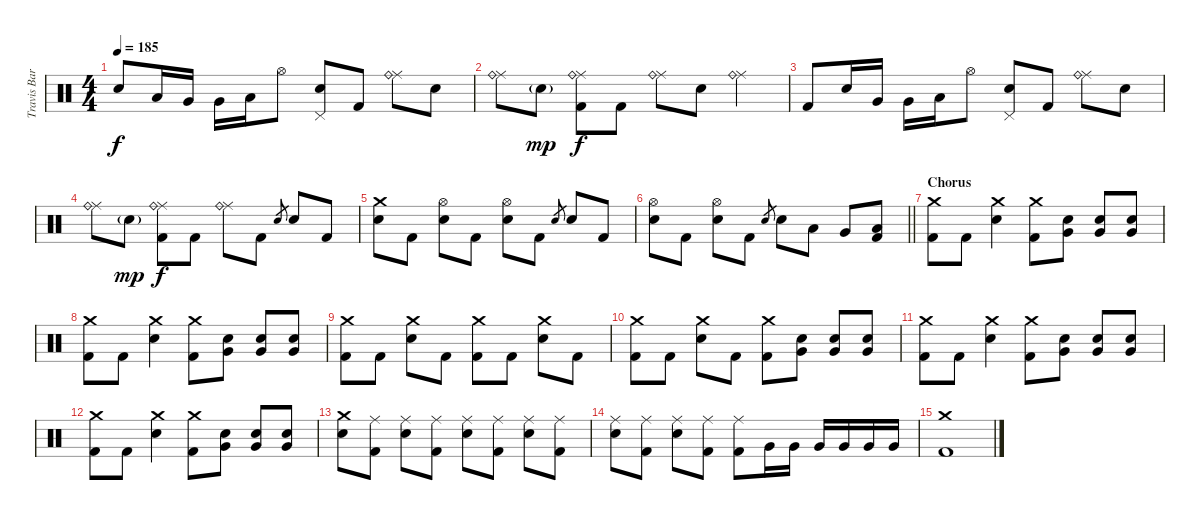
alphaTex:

\track ("Travis Barker - Drums" "Travis Bar") {instrument percussion}
\staff {score}
\articulation defaults
\ts (4 4)
\tempo 185
\clef neutral
\ks c "Electric Snare (hit)".8{dy f} "Low Tom (hit)".16 "Very Low Tom (hit)".16 "Very Low Tom (hit)".16 "Low Floor Tom (hit)".16 "Hi-Hat (open)".8
("Pedal Hi-Hat (hit)" "Electric Snare (hit)").8 "Kick (hit) 2".8 ("Ride (middle)" "Ride (bell)").8 "Electric Snare (hit)".8 |
("Ride (middle)" "Ride (bell)").8 "Electric Snare (hit)"{g}.8{dy mp} ("Ride (middle)" "Ride (bell)" "Kick (hit) 2").8{dy f} "Kick (hit) 2".8 ("Ride (middle)" "Ride (bell)").8 "Electric Snare (hit)".8 ("Ride (middle)" "Ride (bell)").4 |
"Kick (hit) 2".8 "Electric Snare (hit)".16 "Very Low Tom (hit)".16 "Very Low Tom (hit)".16 "Low Floor Tom (hit)".16 "Hi-Hat (open)".8 ("Pedal Hi-Hat (hit)" "Electric Snare (hit)").8 "Kick (hit) 2".8 ("Ride (middle)" "Ride (bell)").8 "Electric Snare (hit)".8 |
("Ride (middle)" "Ride (bell)").8 "Electric Snare (hit)"{g}.8{dy mp} ("Ride (middle)" "Ride (bell)" "Kick (hit) 2").8{dy f} "Kick (hit) 2".8 ("Ride (middle)" "Ride (bell)").8 "Kick (hit) 2".8 "Electric Snare (hit)".8{gr} "Electric Snare (hit)".8 "Kick (hit) 2".8 |
("Crash medium (hit)" "Electric Snare (hit)").8 "Kick (hit) 2".8 ("Hi-Hat (open)" "Electric Snare (hit)").8 "Kick (hit) 2".8 ("Hi-Hat (open)" "Electric Snare (hit)").8 "Kick (hit) 2".8 "Electric Snare (hit)".8{gr} "Electric Snare (hit)".8 "Kick (hit) 2".8 |
\barLineRight lightlight
("Hi-Hat (open)" "Electric Snare (hit)").8 "Kick (hit) 2".8 ("Hi-Hat (open)" "Electric Snare (hit)").8 "Kick (hit) 2".8 "Electric Snare (hit)".8{gr} "Electric Snare (hit)".8 "Low Tom (hit)".8 "Very Low Tom (hit)".8 ("Low Floor Tom (hit)" "Kick (hit) 2").8 |
\section ("" "Chorus")
("Crash medium (hit)" "Kick (hit) 2").8 "Kick (hit) 2".8 ("Crash medium (hit)" "Electric Snare (hit)").4 ("Crash medium (hit)" "Kick (hit) 2").8 ("Very Low Tom (hit)" "Electric Snare (hit)").8 ("Very Low Tom (hit)" "Electric Snare (hit)").8 ("Very Low Tom (hit)" "Electric Snare (hit)").8 |
("Crash medium (hit)" "Kick (hit) 2").8 "Kick (hit) 2".8 ("Crash medium (hit)" "Electric Snare (hit)").4 ("Crash medium (hit)" "Kick (hit) 2").8 ("Very Low Tom (hit)" "Electric Snare (hit)").8 ("Very Low Tom (hit)" "Electric Snare (hit)").8 ("Very Low Tom (hit)" "Electric Snare (hit)").8 |
("Crash medium (hit)" "Kick (hit) 2").8 "Kick (hit) 2".8 ("Crash medium (hit)" "Electric Snare (hit)").8 "Kick (hit) 2".8 ("Crash medium (hit)" "Kick (hit) 2").8 "Kick (hit) 2".8 ("Crash medium (hit)" "Electric Snare (hit)").8 "Kick (hit) 2".8 |
("Crash medium (hit)" "Kick (hit) 2").8 "Kick (hit) 2".8 ("Crash medium (hit)" "Electric Snare (hit)").8 "Kick (hit) 2".8 ("Crash medium (hit)" "Kick (hit) 2").8 ("Very Low Tom (hit)" "Electric Snare (hit)").8 ("Very Low Tom (hit)" "Electric Snare (hit)").8 ("Very Low Tom (hit)" "Electric Snare (hit)").8 |
("Crash medium (hit)" "Kick (hit) 2").8 "Kick (hit) 2".8 ("Crash medium (hit)" "Electric Snare (hit)").4 ("Crash medium (hit)" "Kick (hit) 2").8 ("Very Low Tom (hit)" "Electric Snare (hit)").8 ("Very Low Tom (hit)" "Electric Snare (hit)").8 ("Very Low Tom (hit)" "Electric Snare (hit)").8 |
("Crash medium (hit)" "Kick (hit) 2").8 "Kick (hit) 2".8 ("Crash medium (hit)" "Electric Snare (hit)").4 ("Crash medium (hit)" "Kick (hit) 2").8 ("Very Low Tom (hit)" "Electric Snare (hit)").8 ("Very Low Tom (hit)" "Electric Snare (hit)").8 ("Very Low Tom (hit)" "Electric Snare (hit)").8 |
("Crash medium (hit)" "Electric Snare (hit)").8 ("Ride (middle)" "Kick (hit) 2").8 ("Ride (middle)" "Electric Snare (hit)").8 ("Ride (middle)" "Kick (hit) 2").8 ("Ride (middle)" "Electric Snare (hit)").8 ("Ride (middle)" "Kick (hit) 2").8 ("Ride (middle)" "Electric Snare (hit)").8 ("Ride (middle)" "Kick (hit) 2").8 |
("Ride (middle)" "Electric Snare (hit)").8 ("Ride (middle)" "Kick (hit) 2").8 ("Ride (middle)" "Electric Snare (hit)").8 ("Ride (middle)" "Kick (hit) 2").8 ("Ride (middle)" "Kick (hit) 2").8 "Very Low Tom (hit)".16 "Very Low Tom (hit)".16 "Very Low Tom (hit)".16 "Very Low Tom (hit)".16 "Very Low Tom (hit)".16 "Very Low Tom (hit)".16 |
("Crash medium (hit)" "Kick (hit) 2").1
